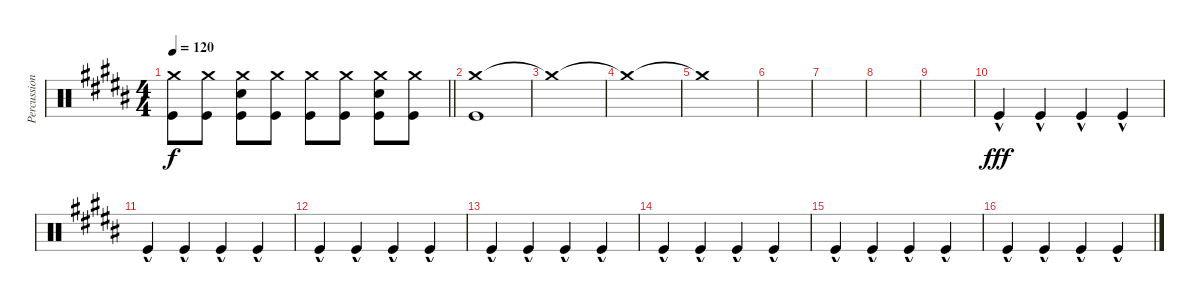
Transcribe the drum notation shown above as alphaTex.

\track ("Percussion" "Percussion") {instrument percussion}
\staff {score}
\articulation defaults
\ts (4 4)
\tempo 120
\clef neutral
\barLineRight lightlight
\ks b
("Crash medium (hit)" "Kick (hit)").8{dy f} ("Crash medium (hit)" "Kick (hit)").8 ("Electric Snare (hit)" "Crash medium (hit)" "Kick (hit)").8 ("Crash medium (hit)" "Kick (hit)").8 ("Crash medium (hit)" "Kick (hit)").8 ("Crash medium (hit)" "Kick (hit)").8 ("Electric Snare (hit)" "Crash medium (hit)" "Kick (hit)").8 ("Crash medium (hit)" "Kick (hit)").8 |
("Crash medium (hit)" "Kick (hit)").1 |
"Crash medium (hit)"{t}.1 |
"Crash medium (hit)"{t}.1 |
"Crash medium (hit)"{t}.1 |
|
|
|
|
"Kick (hit)"{hac}.4{dy fff} "Kick (hit)"{hac}.4 "Kick (hit)"{hac}.4 "Kick (hit)"{hac}.4 |
"Kick (hit)"{hac}.4 "Kick (hit)"{hac}.4 "Kick (hit)"{hac}.4 "Kick (hit)"{hac}.4 |
"Kick (hit)"{hac}.4 "Kick (hit)"{hac}.4 "Kick (hit)"{hac}.4 "Kick (hit)"{hac}.4 |
"Kick (hit)"{hac}.4 "Kick (hit)"{hac}.4 "Kick (hit)"{hac}.4 "Kick (hit)"{hac}.4 |
"Kick (hit)"{hac}.4 "Kick (hit)"{hac}.4 "Kick (hit)"{hac}.4 "Kick (hit)"{hac}.4 |
"Kick (hit)"{hac}.4 "Kick (hit)"{hac}.4 "Kick (hit)"{hac}.4 "Kick (hit)"{hac}.4 |
"Kick (hit)"{hac}.4 "Kick (hit)"{hac}.4 "Kick (hit)"{hac}.4 "Kick (hit)"{hac}.4
